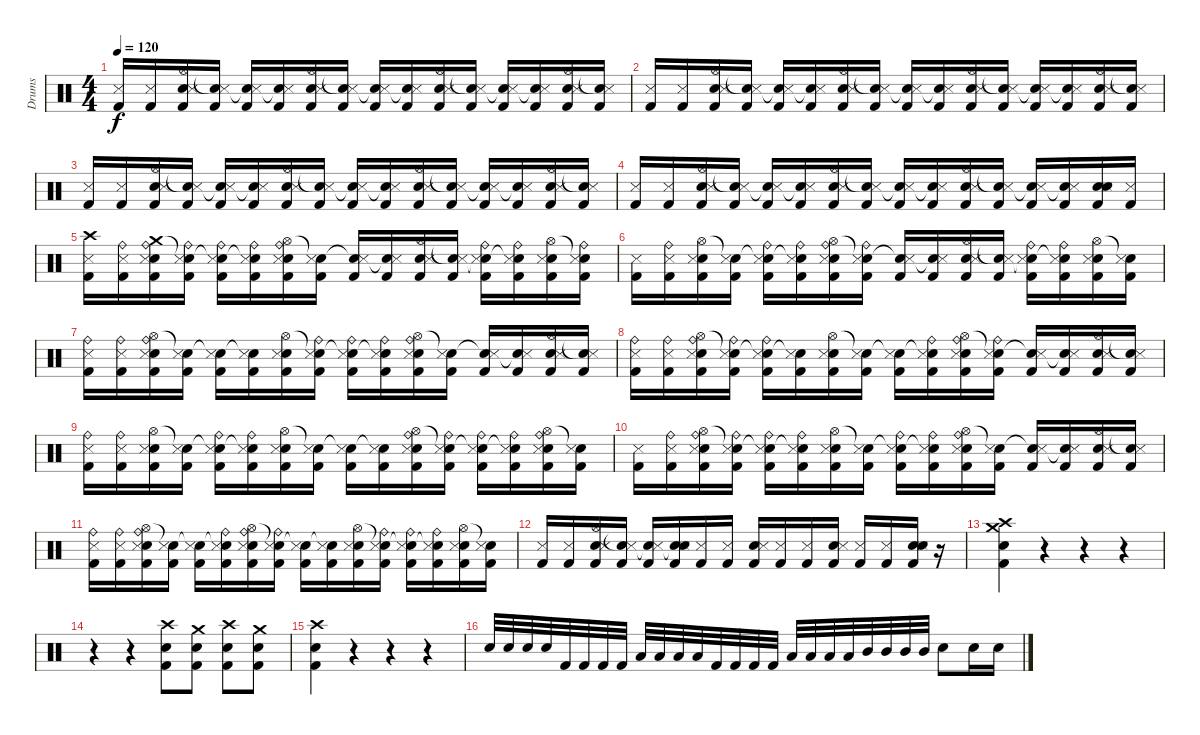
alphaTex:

\track ("Drums" "Drums") {instrument percussion}
\staff {score}
\articulation defaults
\ts (4 4)
\tempo 120
\clef neutral
\ks c
("Kick (hit) 2" "Snare (side stick) 3").16{dy f} ("Kick (hit) 2" "Snare (side stick) 3").16 ("Hi-Hat (open)" "Electric Snare (hit)" "Kick (hit) 2" "Snare (side stick) 3").16 ("Snare (hit)"{t} "Kick (hit) 2" "Snare (side stick) 3").16 ("Snare (hit)"{t} "Kick (hit) 2" "Snare (side stick) 3").16 ("Snare (hit)"{t} "Kick (hit) 2" "Snare (side stick) 3").16 ("Hi-Hat (open)" "Electric Snare (hit)" "Kick (hit) 2" "Snare (side stick) 3").16 ("Snare (hit)"{t} "Kick (hit) 2" "Snare (side stick) 3").16 ("Snare (hit)"{t} "Kick (hit) 2" "Snare (side stick) 3").16 ("Snare (hit)"{t} "Kick (hit) 2" "Snare (side stick) 3").16 ("Hi-Hat (open)" "Electric Snare (hit)" "Kick (hit) 2" "Snare (side stick) 3").16 ("Snare (hit)"{t} "Kick (hit) 2" "Snare (side stick) 3").16 ("Snare (hit)"{t} "Kick (hit) 2" "Snare (side stick) 3").16 ("Snare (hit)"{t} "Kick (hit) 2" "Snare (side stick) 3").16 ("Hi-Hat (open)" "Electric Snare (hit)" "Kick (hit) 2" "Snare (side stick) 3").16 ("Snare (hit)"{t} "Kick (hit) 2" "Snare (side stick) 3").16 |
("Kick (hit) 2" "Snare (side stick) 3").16 ("Kick (hit) 2" "Snare (side stick) 3").16 ("Hi-Hat (open)" "Electric Snare (hit)" "Kick (hit) 2" "Snare (side stick) 3").16 ("Snare (hit)"{t} "Kick (hit) 2" "Snare (side stick) 3").16 ("Snare (hit)"{t} "Kick (hit) 2" "Snare (side stick) 3").16 ("Snare (hit)"{t} "Kick (hit) 2" "Snare (side stick) 3").16 ("Hi-Hat (open)" "Electric Snare (hit)" "Kick (hit) 2" "Snare (side stick) 3").16 ("Snare (hit)"{t} "Kick (hit) 2" "Snare (side stick) 3").16 ("Snare (hit)"{t} "Kick (hit) 2" "Snare (side stick) 3").16 ("Snare (hit)"{t} "Kick (hit) 2" "Snare (side stick) 3").16 ("Hi-Hat (open)" "Electric Snare (hit)" "Kick (hit) 2" "Snare (side stick) 3").16 ("Snare (hit)"{t} "Kick (hit) 2" "Snare (side stick) 3").16 ("Snare (hit)"{t} "Kick (hit) 2" "Snare (side stick) 3").16 ("Snare (hit)"{t} "Kick (hit) 2" "Snare (side stick) 3").16 ("Hi-Hat (open)" "Electric Snare (hit)" "Kick (hit) 2" "Snare (side stick) 3").16 ("Snare (hit)"{t} "Kick (hit) 2" "Snare (side stick) 3").16 |
("Kick (hit) 2" "Snare (side stick) 3").16 ("Kick (hit) 2" "Snare (side stick) 3").16 ("Hi-Hat (open)" "Electric Snare (hit)" "Kick (hit) 2" "Snare (side stick) 3").16 ("Snare (hit)"{t} "Kick (hit) 2" "Snare (side stick) 3").16 ("Snare (hit)"{t} "Kick (hit) 2" "Snare (side stick) 3").16 ("Snare (hit)"{t} "Kick (hit) 2" "Snare (side stick) 3").16 ("Hi-Hat (open)" "Electric Snare (hit)" "Kick (hit) 2" "Snare (side stick) 3").16 ("Snare (hit)"{t} "Kick (hit) 2" "Snare (side stick) 3").16 ("Snare (hit)"{t} "Kick (hit) 2" "Snare (side stick) 3").16 ("Snare (hit)"{t} "Kick (hit) 2" "Snare (side stick) 3").16 ("Hi-Hat (open)" "Electric Snare (hit)" "Kick (hit) 2" "Snare (side stick) 3").16 ("Snare (hit)"{t} "Kick (hit) 2" "Snare (side stick) 3").16 ("Snare (hit)"{t} "Kick (hit) 2" "Snare (side stick) 3").16 ("Snare (hit)"{t} "Kick (hit) 2" "Snare (side stick) 3").16 ("Hi-Hat (open)" "Electric Snare (hit)" "Kick (hit) 2" "Snare (side stick) 3").16 ("Snare (hit)"{t} "Kick (hit) 2" "Snare (side stick) 3").16 |
("Kick (hit) 2" "Snare (side stick) 3").16 ("Kick (hit) 2" "Snare (side stick) 3").16 ("Hi-Hat (open)" "Electric Snare (hit)" "Kick (hit) 2" "Snare (side stick) 3").16 ("Snare (hit)"{t} "Kick (hit) 2" "Snare (side stick) 3").16 ("Snare (hit)"{t} "Kick (hit) 2" "Snare (side stick) 3").16 ("Snare (hit)"{t} "Kick (hit) 2" "Snare (side stick) 3").16 ("Hi-Hat (open)" "Electric Snare (hit)" "Kick (hit) 2" "Snare (side stick) 3").16 ("Snare (hit)"{t} "Kick (hit) 2" "Snare (side stick) 3").16 ("Snare (hit)"{t} "Kick (hit) 2" "Snare (side stick) 3").16 ("Snare (hit)"{t} "Kick (hit) 2" "Snare (side stick) 3").16 ("Hi-Hat (open)" "Electric Snare (hit)" "Kick (hit) 2" "Snare (side stick) 3").16 ("Snare (hit)"{t} "Kick (hit) 2" "Snare (side stick) 3").16 ("Snare (hit)"{t} "Kick (hit) 2" "Snare (side stick) 3").16 ("Snare (hit)"{t} "Kick (hit) 2" "Snare (side stick) 3").16 ("Snare (hit) 2" "Electric Snare (hit)" "Kick (hit) 2" "Snare (side stick) 3").16 ("Kick (hit) 2" "Snare (side stick) 3").16 |
("Crash high (hit)" "Kick (hit) 2" "Snare (side stick) 3").16 ("Kick (hit) 2" "Snare (side stick) 3" "Ride (bell)").16 ("Crash medium (hit)" "Electric Snare (hit)" "Kick (hit) 2" "Snare (side stick) 3" "Ride (bell)").16 ("Snare (hit)"{t} "Kick (hit) 2" "Snare (side stick) 3" "Ride (bell)").16 ("Snare (hit)"{t} "Kick (hit) 2" "Snare (side stick) 3" "Ride (bell)").16 ("Snare (hit)"{t} "Kick (hit) 2" "Snare (side stick) 3" "Ride (bell)").16 ("Hi-Hat (open)" "Electric Snare (hit)" "Kick (hit) 2" "Snare (side stick) 3" "Ride (bell)").16 ("Snare (hit)"{t} "Kick (hit) 2" "Snare (side stick) 3").16 ("Snare (hit)"{t} "Kick (hit) 2" "Snare (side stick) 3").16 ("Snare (hit)"{t} "Kick (hit) 2" "Snare (side stick) 3").16 ("Hi-Hat (open)" "Electric Snare (hit)" "Kick (hit) 2" "Snare (side stick) 3").16 ("Snare (hit)"{t} "Kick (hit) 2" "Snare (side stick) 3").16 ("Snare (hit)"{t} "Kick (hit) 2" "Snare (side stick) 3" "Ride (bell)").16 ("Snare (hit)"{t} "Kick (hit) 2" "Snare (side stick) 3" "Ride (bell)").16 ("Hi-Hat (open)" "Electric Snare (hit)" "Kick (hit) 2" "Snare (side stick) 3").16 ("Snare (hit)"{t} "Kick (hit) 2" "Snare (side stick) 3" "Ride (bell)").16 |
("Kick (hit) 2" "Snare (side stick) 3").16 ("Kick (hit) 2" "Snare (side stick) 3" "Ride (bell)").16 ("Hi-Hat (open)" "Electric Snare (hit)" "Kick (hit) 2" "Snare (side stick) 3").16 ("Snare (hit)"{t} "Kick (hit) 2" "Snare (side stick) 3").16 ("Snare (hit)"{t} "Kick (hit) 2" "Snare (side stick) 3" "Ride (bell)").16 ("Snare (hit)"{t} "Kick (hit) 2" "Snare (side stick) 3" "Ride (bell)").16 ("Hi-Hat (open)" "Electric Snare (hit)" "Kick (hit) 2" "Snare (side stick) 3" "Ride (bell)").16 ("Snare (hit)"{t} "Kick (hit) 2" "Snare (side stick) 3" "Ride (bell)").16 ("Snare (hit)"{t} "Kick (hit) 2" "Snare (side stick) 3").16 ("Snare (hit)"{t} "Kick (hit) 2" "Snare (side stick) 3").16 ("Hi-Hat (open)" "Electric Snare (hit)" "Kick (hit) 2" "Snare (side stick) 3").16 ("Snare (hit)"{t} "Kick (hit) 2" "Snare (side stick) 3").16 ("Snare (hit)"{t} "Kick (hit) 2" "Snare (side stick) 3" "Ride (bell)").16 ("Snare (hit)"{t} "Kick (hit) 2" "Snare (side stick) 3" "Ride (bell)").16 ("Hi-Hat (open)" "Electric Snare (hit)" "Kick (hit) 2" "Snare (side stick) 3").16 ("Snare (hit)"{t} "Kick (hit) 2" "Snare (side stick) 3").16 |
("Kick (hit) 2" "Snare (side stick) 3" "Ride (bell)").16 ("Kick (hit) 2" "Snare (side stick) 3" "Ride (bell)").16 ("Hi-Hat (open)" "Electric Snare (hit)" "Kick (hit) 2" "Snare (side stick) 3" "Ride (bell)").16 ("Snare (hit)"{t} "Kick (hit) 2" "Snare (side stick) 3").16 ("Snare (hit)"{t} "Kick (hit) 2" "Snare (side stick) 3").16 ("Snare (hit)"{t} "Kick (hit) 2" "Snare (side stick) 3").16 ("Hi-Hat (open)" "Electric Snare (hit)" "Kick (hit) 2" "Snare (side stick) 3").16 ("Snare (hit)"{t} "Kick (hit) 2" "Snare (side stick) 3" "Ride (bell)").16 ("Snare (hit)"{t} "Kick (hit) 2" "Snare (side stick) 3" "Ride (bell)").16 ("Snare (hit)"{t} "Kick (hit) 2" "Snare (side stick) 3" "Ride (bell)").16 ("Hi-Hat (open)" "Electric Snare (hit)" "Kick (hit) 2" "Snare (side stick) 3" "Ride (bell)").16 ("Snare (hit)"{t} "Kick (hit) 2" "Snare (side stick) 3").16 ("Snare (hit)"{t} "Kick (hit) 2" "Snare (side stick) 3").16 ("Snare (hit)"{t} "Kick (hit) 2" "Snare (side stick) 3").16 ("Hi-Hat (open)" "Electric Snare (hit)" "Kick (hit) 2" "Snare (side stick) 3").16 ("Snare (hit)"{t} "Kick (hit) 2" "Snare (side stick) 3").16 |
("Kick (hit) 2" "Snare (side stick) 3" "Ride (bell)").16 ("Kick (hit) 2" "Snare (side stick) 3" "Ride (bell)").16 ("Hi-Hat (open)" "Electric Snare (hit)" "Kick (hit) 2" "Snare (side stick) 3" "Ride (bell)").16 ("Snare (hit)"{t} "Kick (hit) 2" "Snare (side stick) 3" "Ride (bell)").16 ("Snare (hit)"{t} "Kick (hit) 2" "Snare (side stick) 3" "Ride (bell)").16 ("Snare (hit)"{t} "Kick (hit) 2" "Snare (side stick) 3").16 ("Hi-Hat (open)" "Electric Snare (hit)" "Kick (hit) 2" "Snare (side stick) 3").16 ("Snare (hit)"{t} "Kick (hit) 2" "Snare (side stick) 3").16 ("Snare (hit)"{t} "Kick (hit) 2" "Snare (side stick) 3").16 ("Snare (hit)"{t} "Kick (hit) 2" "Snare (side stick) 3" "Ride (bell)").16 ("Hi-Hat (open)" "Electric Snare (hit)" "Kick (hit) 2" "Snare (side stick) 3" "Ride (bell)").16 ("Snare (hit)"{t} "Kick (hit) 2" "Snare (side stick) 3" "Ride (bell)").16 ("Snare (hit)"{t} "Kick (hit) 2" "Snare (side stick) 3").16 ("Snare (hit)"{t} "Kick (hit) 2" "Snare (side stick) 3").16 ("Hi-Hat (open)" "Electric Snare (hit)" "Kick (hit) 2" "Snare (side stick) 3").16 ("Snare (hit)"{t} "Kick (hit) 2" "Snare (side stick) 3").16 |
("Kick (hit) 2" "Snare (side stick) 3" "Ride (bell)").16 ("Kick (hit) 2" "Snare (side stick) 3" "Ride (bell)").16 ("Hi-Hat (open)" "Electric Snare (hit)" "Kick (hit) 2" "Snare (side stick) 3").16 ("Snare (hit)"{t} "Kick (hit) 2" "Snare (side stick) 3").16 ("Snare (hit)"{t} "Kick (hit) 2" "Snare (side stick) 3" "Ride (bell)").16 ("Snare (hit)"{t} "Kick (hit) 2" "Snare (side stick) 3" "Ride (bell)").16 ("Hi-Hat (open)" "Electric Snare (hit)" "Kick (hit) 2" "Snare (side stick) 3").16 ("Snare (hit)"{t} "Kick (hit) 2" "Snare (side stick) 3").16 ("Snare (hit)"{t} "Kick (hit) 2" "Snare (side stick) 3").16 ("Snare (hit)"{t} "Kick (hit) 2" "Snare (side stick) 3").16 ("Hi-Hat (open)" "Electric Snare (hit)" "Kick (hit) 2" "Snare (side stick) 3" "Ride (bell)").16 ("Snare (hit)"{t} "Kick (hit) 2" "Snare (side stick) 3" "Ride (bell)").16 ("Snare (hit)"{t} "Kick (hit) 2" "Snare (side stick) 3" "Ride (bell)").16 ("Snare (hit)"{t} "Kick (hit) 2" "Snare (side stick) 3" "Ride (bell)").16 ("Hi-Hat (open)" "Electric Snare (hit)" "Kick (hit) 2" "Snare (side stick) 3" "Ride (bell)").16 ("Snare (hit)"{t} "Kick (hit) 2" "Snare (side stick) 3").16 |
("Kick (hit) 2" "Snare (side stick) 3").16 ("Kick (hit) 2" "Snare (side stick) 3" "Ride (bell)").16 ("Hi-Hat (open)" "Electric Snare (hit)" "Kick (hit) 2" "Snare (side stick) 3" "Ride (bell)").16 ("Snare (hit)"{t} "Kick (hit) 2" "Snare (side stick) 3" "Ride (bell)").16 ("Snare (hit)"{t} "Kick (hit) 2" "Snare (side stick) 3" "Ride (bell)").16 ("Snare (hit)"{t} "Kick (hit) 2" "Snare (side stick) 3" "Ride (bell)").16 ("Hi-Hat (open)" "Electric Snare (hit)" "Kick (hit) 2" "Snare (side stick) 3").16 ("Snare (hit)"{t} "Kick (hit) 2" "Snare (side stick) 3").16 ("Snare (hit)"{t} "Kick (hit) 2" "Snare (side stick) 3" "Ride (bell)").16 ("Snare (hit)"{t} "Kick (hit) 2" "Snare (side stick) 3" "Ride (bell)").16 ("Hi-Hat (open)" "Electric Snare (hit)" "Kick (hit) 2" "Snare (side stick) 3" "Ride (bell)").16 ("Snare (hit)"{t} "Kick (hit) 2" "Snare (side stick) 3").16 ("Snare (hit)"{t} "Kick (hit) 2" "Snare (side stick) 3").16 ("Snare (hit)"{t} "Kick (hit) 2" "Snare (side stick) 3").16 ("Hi-Hat (open)" "Electric Snare (hit)" "Kick (hit) 2" "Snare (side stick) 3").16 ("Snare (hit)"{t} "Kick (hit) 2" "Snare (side stick) 3").16 |
("Kick (hit) 2" "Snare (side stick) 3" "Ride (bell)").16 ("Kick (hit) 2" "Snare (side stick) 3" "Ride (bell)").16 ("Hi-Hat (open)" "Electric Snare (hit)" "Kick (hit) 2" "Snare (side stick) 3" "Ride (bell)").16 ("Snare (hit)"{t} "Kick (hit) 2" "Snare (side stick) 3").16 ("Snare (hit)"{t} "Kick (hit) 2" "Snare (side stick) 3").16 ("Snare (hit)"{t} "Kick (hit) 2" "Snare (side stick) 3" "Ride (bell)").16 ("Hi-Hat (open)" "Electric Snare (hit)" "Kick (hit) 2" "Snare (side stick) 3" "Ride (bell)").16 ("Snare (hit)"{t} "Kick (hit) 2" "Snare (side stick) 3" "Ride (bell)").16 ("Snare (hit)"{t} "Kick (hit) 2" "Snare (side stick) 3").16 ("Snare (hit)"{t} "Kick (hit) 2" "Snare (side stick) 3").16 ("Hi-Hat (open)" "Electric Snare (hit)" "Kick (hit) 2" "Snare (side stick) 3").16 ("Snare (hit)"{t} "Kick (hit) 2" "Snare (side stick) 3" "Ride (bell)").16 ("Snare (hit)"{t} "Kick (hit) 2" "Snare (side stick) 3" "Ride (bell)").16 ("Snare (hit)"{t} "Kick (hit) 2" "Snare (side stick) 3" "Ride (bell)").16 ("Hi-Hat (open)" "Electric Snare (hit)" "Kick (hit) 2" "Snare (side stick) 3").16 ("Snare (hit)"{t} "Kick (hit) 2" "Snare (side stick) 3").16 |
("Kick (hit) 2" "Snare (side stick) 3").16 ("Kick (hit) 2" "Snare (side stick) 3").16 ("Hi-Hat (open)" "Electric Snare (hit)" "Kick (hit) 2" "Snare (side stick) 3").16 ("Snare (hit)"{t} "Kick (hit) 2" "Snare (side stick) 3").16 ("Snare (hit)"{t} "Kick (hit) 2" "Snare (side stick) 3").16 ("Snare (hit)"{t} "Electric Snare (hit)" "Kick (hit) 2" "Snare (side stick) 3").16 ("Kick (hit) 2" "Snare (side stick) 3").16 ("Kick (hit) 2" "Snare (side stick) 3").16 ("Electric Snare (hit)" "Kick (hit) 2" "Snare (side stick) 3").16 ("Kick (hit) 2" "Snare (side stick) 3").16 ("Kick (hit) 2" "Snare (side stick) 3").16 ("Electric Snare (hit)" "Kick (hit) 2" "Snare (side stick) 3").16 ("Kick (hit) 2" "Snare (side stick) 3").16 ("Kick (hit) 2" "Snare (side stick) 3").16 ("Snare (hit) 2" "Electric Snare (hit)" "Kick (hit) 2" "Snare (side stick) 3").16 r.16 |
("Crash high (hit)" "Crash medium (hit)" "Kick (hit) 2" "Snare (hit) 2").4 r.4 r.4 r.4 |
r.4 r.4 ("Crash high (hit)" "Kick (hit) 2" "Snare (hit) 2").8 ("Crash medium (hit)" "Kick (hit) 2" "Snare (hit) 2").8 ("Crash high (hit)" "Kick (hit) 2" "Snare (hit) 2").8 ("Crash medium (hit)" "Kick (hit) 2" "Snare (hit) 2").8 |
("Crash high (hit)" "Kick (hit) 2" "Snare (hit) 2").4 r.4 r.4 r.4 |
"Electric Snare (hit)".32 "Electric Snare (hit)".32 "Electric Snare (hit)".32 "Electric Snare (hit)".32 "Kick (hit) 2".32 "Kick (hit) 2".32 "Kick (hit) 2".32 "Kick (hit) 2".32 "Low Tom (hit)".32 "Low Tom (hit)".32 "Low Tom (hit)".32 "Low Tom (hit)".32 "Kick (hit) 2".32 "Kick (hit) 2".32 "Kick (hit) 2".32 "Kick (hit) 2".32 "Low Tom (hit)".32 "Low Tom (hit)".32 "Low Tom (hit)".32 "Low Tom (hit)".32 "Mid Tom (hit)".32 "Mid Tom (hit)".32 "Mid Tom (hit)".32 "Mid Tom (hit)".32 "Electric Snare (hit)".8 "Electric Snare (hit)".16 "Electric Snare (hit)".16
